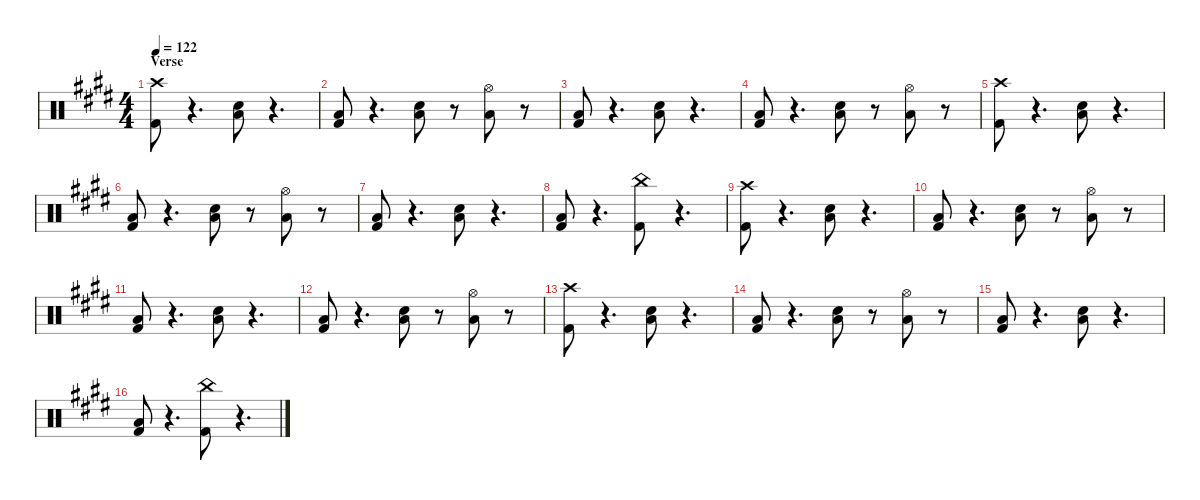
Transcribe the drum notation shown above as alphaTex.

\defaultSystemsLayout 4
\hideDynamics
\bracketExtendMode nobrackets
\otherSystemsTrackNameOrientation horizontal
\track ("Shinya" "  ") {instrument percussion}
\staff {score}
\articulation defaults
\ts (4 4)
\section ("" "Verse")
\tempo 122
\clef neutral
\ks c#minor
("Kick (hit) 2"{acc forcenatural} "Crash high (hit)"{acc #}).8{dy fff} r.4{d} ("Snare (hit) 2"{acc forcenatural} "Low Tom (hit)"{acc forcenatural}).8 r.4{d} |
("Kick (hit) 2"{acc forcenatural} "Low Tom (hit)"{acc forcenatural}).8 r.4{d} ("Snare (hit) 2"{acc forcenatural} "Low Tom (hit)"{acc forcenatural}).8 r.8 ("Low Tom (hit)"{acc forcenatural} "Hi-Hat (open)"{acc #}).8 r.8 |
("Kick (hit) 2"{acc forcenatural} "Low Tom (hit)"{acc forcenatural}).8 r.4{d} ("Snare (hit) 2"{acc forcenatural} "Low Tom (hit)"{acc forcenatural}).8 r.4{d} |
("Kick (hit) 2"{acc forcenatural} "Low Tom (hit)"{acc forcenatural}).8 r.4{d} ("Snare (hit) 2"{acc forcenatural} "Low Tom (hit)"{acc forcenatural}).8 r.8 ("Low Tom (hit)"{acc forcenatural} "Hi-Hat (open)"{acc #}).8 r.8 |
("Kick (hit) 2"{acc forcenatural} "Crash high (hit)"{acc #}).8 r.4{d} ("Snare (hit) 2"{acc forcenatural} "Low Tom (hit)"{acc forcenatural}).8 r.4{d} |
("Kick (hit) 2"{acc forcenatural} "Low Tom (hit)"{acc forcenatural}).8 r.4{d} ("Snare (hit) 2"{acc forcenatural} "Low Tom (hit)"{acc forcenatural}).8 r.8 ("Low Tom (hit)"{acc forcenatural} "Hi-Hat (open)"{acc #}).8 r.8 |
("Kick (hit) 2"{acc forcenatural} "Low Tom (hit)"{acc forcenatural}).8 r.4{d} ("Snare (hit) 2"{acc forcenatural} "Low Tom (hit)"{acc forcenatural}).8 r.4{d} |
("Kick (hit) 2"{acc forcenatural} "Low Tom (hit)"{acc forcenatural}).8 r.4{d} ("Kick (hit) 2"{acc forcenatural} "China (hit)"{acc forcenatural}).8 r.4{d} |
("Kick (hit) 2"{acc forcenatural} "Crash high (hit)"{acc #}).8 r.4{d} ("Snare (hit) 2"{acc forcenatural} "Low Tom (hit)"{acc forcenatural}).8 r.4{d} |
("Kick (hit) 2"{acc forcenatural} "Low Tom (hit)"{acc forcenatural}).8 r.4{d} ("Snare (hit) 2"{acc forcenatural} "Low Tom (hit)"{acc forcenatural}).8 r.8 ("Low Tom (hit)"{acc forcenatural} "Hi-Hat (open)"{acc #}).8 r.8 |
("Kick (hit) 2"{acc forcenatural} "Low Tom (hit)"{acc forcenatural}).8 r.4{d} ("Snare (hit) 2"{acc forcenatural} "Low Tom (hit)"{acc forcenatural}).8 r.4{d} |
("Kick (hit) 2"{acc forcenatural} "Low Tom (hit)"{acc forcenatural}).8 r.4{d} ("Snare (hit) 2"{acc forcenatural} "Low Tom (hit)"{acc forcenatural}).8 r.8 ("Low Tom (hit)"{acc forcenatural} "Hi-Hat (open)"{acc #}).8 r.8 |
("Kick (hit) 2"{acc forcenatural} "Crash high (hit)"{acc #}).8 r.4{d} ("Snare (hit) 2"{acc forcenatural} "Low Tom (hit)"{acc forcenatural}).8 r.4{d} |
("Kick (hit) 2"{acc forcenatural} "Low Tom (hit)"{acc forcenatural}).8 r.4{d} ("Snare (hit) 2"{acc forcenatural} "Low Tom (hit)"{acc forcenatural}).8 r.8 ("Low Tom (hit)"{acc forcenatural} "Hi-Hat (open)"{acc #}).8 r.8 |
("Kick (hit) 2"{acc forcenatural} "Low Tom (hit)"{acc forcenatural}).8 r.4{d} ("Snare (hit) 2"{acc forcenatural} "Low Tom (hit)"{acc forcenatural}).8 r.4{d} |
("Kick (hit) 2"{acc forcenatural} "Low Tom (hit)"{acc forcenatural}).8 r.4{d} ("Kick (hit) 2"{acc forcenatural} "China (hit)"{acc forcenatural}).8 r.4{d}
